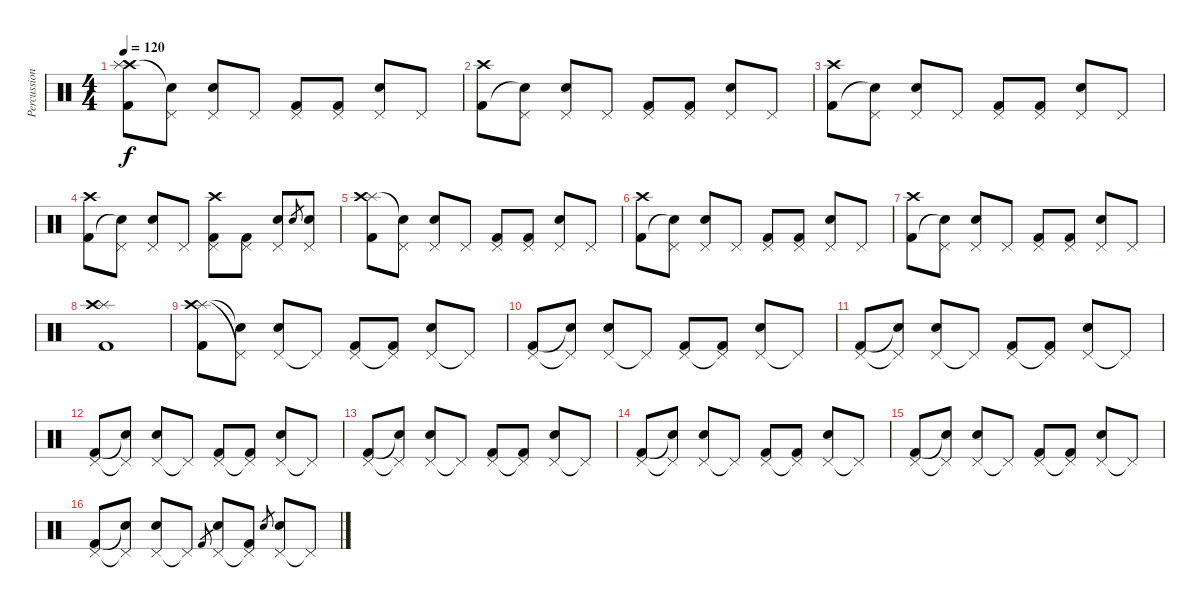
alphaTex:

\track ("Percussion" "Percussion") {instrument percussion}
\staff {score}
\articulation defaults
\ts (4 4)
\tempo 120
\clef neutral
\ks c
("Crash high (hit)" "Splash (hit)" "Kick (hit) 2").8{dy f} ("Pedal Hi-Hat (hit)" "Snare (hit)"{t}).8 ("Pedal Hi-Hat (hit)" "Electric Snare (hit)").8 "Pedal Hi-Hat (hit)".8 ("Pedal Hi-Hat (hit)" "Kick (hit) 2").8 ("Pedal Hi-Hat (hit)" "Kick (hit) 2").8 ("Pedal Hi-Hat (hit)" "Electric Snare (hit)").8 "Pedal Hi-Hat (hit)".8 |
("Crash high (hit)" "Kick (hit) 2").8 ("Pedal Hi-Hat (hit)" "Snare (hit)"{t}).8 ("Pedal Hi-Hat (hit)" "Electric Snare (hit)").8 "Pedal Hi-Hat (hit)".8 ("Pedal Hi-Hat (hit)" "Kick (hit) 2").8 ("Pedal Hi-Hat (hit)" "Kick (hit) 2").8 ("Pedal Hi-Hat (hit)" "Electric Snare (hit)").8 "Pedal Hi-Hat (hit)".8 |
("Crash high (hit)" "Kick (hit) 2").8 ("Pedal Hi-Hat (hit)" "Snare (hit)"{t}).8 ("Pedal Hi-Hat (hit)" "Electric Snare (hit)").8 "Pedal Hi-Hat (hit)".8 ("Pedal Hi-Hat (hit)" "Kick (hit) 2").8 ("Pedal Hi-Hat (hit)" "Kick (hit) 2").8 ("Pedal Hi-Hat (hit)" "Electric Snare (hit)").8 "Pedal Hi-Hat (hit)".8 |
("Crash high (hit)" "Kick (hit) 2").8 ("Pedal Hi-Hat (hit)" "Snare (hit)"{t}).8 ("Pedal Hi-Hat (hit)" "Electric Snare (hit)").8 "Pedal Hi-Hat (hit)".8 ("Crash high (hit)" "Pedal Hi-Hat (hit)" "Kick (hit) 2").8 ("Pedal Hi-Hat (hit)" "Kick (hit) 2").8 ("Pedal Hi-Hat (hit)" "Electric Snare (hit)").8 "Electric Snare (hit)".8{gr} ("Pedal Hi-Hat (hit)" "Electric Snare (hit)").8 |
("Splash (hit)" "Crash high (hit)" "Kick (hit) 2").8 ("Pedal Hi-Hat (hit)" "Snare (hit)"{t}).8 ("Pedal Hi-Hat (hit)" "Electric Snare (hit)").8 "Pedal Hi-Hat (hit)".8 ("Pedal Hi-Hat (hit)" "Kick (hit) 2").8 ("Pedal Hi-Hat (hit)" "Kick (hit) 2").8 ("Pedal Hi-Hat (hit)" "Electric Snare (hit)").8 "Pedal Hi-Hat (hit)".8 |
("Crash high (hit)" "Kick (hit) 2").8 ("Pedal Hi-Hat (hit)" "Snare (hit)"{t}).8 ("Pedal Hi-Hat (hit)" "Electric Snare (hit)").8 "Pedal Hi-Hat (hit)".8 ("Pedal Hi-Hat (hit)" "Kick (hit) 2").8 ("Pedal Hi-Hat (hit)" "Kick (hit) 2").8 ("Pedal Hi-Hat (hit)" "Electric Snare (hit)").8 "Pedal Hi-Hat (hit)".8 |
("Crash high (hit)" "Kick (hit) 2").8 ("Pedal Hi-Hat (hit)" "Snare (hit)"{t}).8 ("Pedal Hi-Hat (hit)" "Electric Snare (hit)").8 "Pedal Hi-Hat (hit)".8 ("Pedal Hi-Hat (hit)" "Kick (hit) 2").8 ("Pedal Hi-Hat (hit)" "Kick (hit) 2").8 ("Pedal Hi-Hat (hit)" "Electric Snare (hit)").8 "Pedal Hi-Hat (hit)".8 |
("Splash (hit)" "Crash high (hit)" "Kick (hit) 2").1 |
("Splash (hit)" "Crash high (hit)" "Kick (hit) 2").8 ("Pedal Hi-Hat (hit)"{t} "Snare (hit)"{t}).8 ("Pedal Hi-Hat (hit)" "Electric Snare (hit)").8 "Pedal Hi-Hat (hit)"{t}.8 ("Pedal Hi-Hat (hit)" "Kick (hit) 2").8 ("Pedal Hi-Hat (hit)"{t} "Kick (hit) 2").8 ("Pedal Hi-Hat (hit)" "Electric Snare (hit)").8 "Pedal Hi-Hat (hit)"{t}.8 |
("Pedal Hi-Hat (hit)" "Kick (hit) 2").8 ("Pedal Hi-Hat (hit)"{t} "Snare (hit)"{t}).8 ("Pedal Hi-Hat (hit)" "Electric Snare (hit)").8 "Pedal Hi-Hat (hit)"{t}.8 ("Pedal Hi-Hat (hit)" "Kick (hit) 2").8 ("Pedal Hi-Hat (hit)"{t} "Kick (hit) 2").8 ("Pedal Hi-Hat (hit)" "Electric Snare (hit)").8 "Pedal Hi-Hat (hit)"{t}.8 |
("Pedal Hi-Hat (hit)" "Kick (hit) 2").8 ("Pedal Hi-Hat (hit)"{t} "Snare (hit)"{t}).8 ("Pedal Hi-Hat (hit)" "Electric Snare (hit)").8 "Pedal Hi-Hat (hit)"{t}.8 ("Pedal Hi-Hat (hit)" "Kick (hit) 2").8 ("Pedal Hi-Hat (hit)"{t} "Kick (hit) 2").8 ("Pedal Hi-Hat (hit)" "Electric Snare (hit)").8 "Pedal Hi-Hat (hit)"{t}.8 |
("Pedal Hi-Hat (hit)" "Kick (hit) 2").8 ("Pedal Hi-Hat (hit)"{t} "Snare (hit)"{t}).8 ("Pedal Hi-Hat (hit)" "Electric Snare (hit)").8 "Pedal Hi-Hat (hit)"{t}.8 ("Pedal Hi-Hat (hit)" "Kick (hit) 2").8 ("Pedal Hi-Hat (hit)"{t} "Kick (hit) 2").8 ("Pedal Hi-Hat (hit)" "Electric Snare (hit)").8 "Pedal Hi-Hat (hit)"{t}.8 |
("Pedal Hi-Hat (hit)" "Kick (hit) 2").8 ("Pedal Hi-Hat (hit)"{t} "Snare (hit)"{t}).8 ("Pedal Hi-Hat (hit)" "Electric Snare (hit)").8 "Pedal Hi-Hat (hit)"{t}.8 ("Pedal Hi-Hat (hit)" "Kick (hit) 2").8 ("Pedal Hi-Hat (hit)"{t} "Kick (hit) 2").8 ("Pedal Hi-Hat (hit)" "Electric Snare (hit)").8 "Pedal Hi-Hat (hit)"{t}.8 |
("Pedal Hi-Hat (hit)" "Kick (hit) 2").8 ("Pedal Hi-Hat (hit)"{t} "Snare (hit)"{t}).8 ("Pedal Hi-Hat (hit)" "Electric Snare (hit)").8 "Pedal Hi-Hat (hit)"{t}.8 ("Pedal Hi-Hat (hit)" "Kick (hit) 2").8 ("Pedal Hi-Hat (hit)"{t} "Kick (hit) 2").8 ("Pedal Hi-Hat (hit)" "Electric Snare (hit)").8 "Pedal Hi-Hat (hit)"{t}.8 |
("Pedal Hi-Hat (hit)" "Kick (hit) 2").8 ("Pedal Hi-Hat (hit)"{t} "Snare (hit)"{t}).8 ("Pedal Hi-Hat (hit)" "Electric Snare (hit)").8 "Pedal Hi-Hat (hit)"{t}.8 ("Pedal Hi-Hat (hit)" "Kick (hit) 2").8 ("Pedal Hi-Hat (hit)"{t} "Kick (hit) 2").8 ("Pedal Hi-Hat (hit)" "Electric Snare (hit)").8 "Pedal Hi-Hat (hit)"{t}.8 |
("Pedal Hi-Hat (hit)" "Kick (hit) 2").8 ("Pedal Hi-Hat (hit)"{t} "Snare (hit)"{t}).8 ("Pedal Hi-Hat (hit)" "Electric Snare (hit)").8 "Pedal Hi-Hat (hit)"{t}.8 "Kick (hit) 2".8{gr} ("Pedal Hi-Hat (hit)" "Electric Snare (hit)").8 ("Pedal Hi-Hat (hit)"{t} "Kick (hit) 2").8 "Electric Snare (hit)".8{gr} ("Pedal Hi-Hat (hit)" "Electric Snare (hit)").8 "Pedal Hi-Hat (hit)"{t}.8
